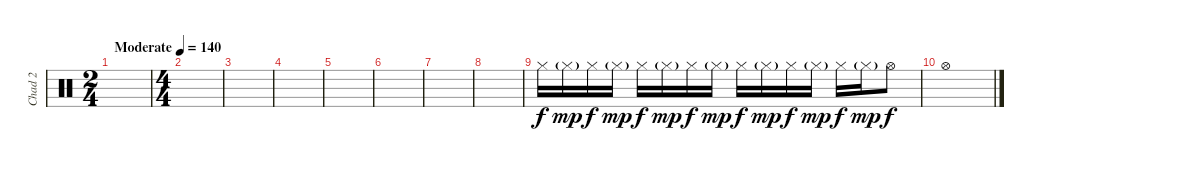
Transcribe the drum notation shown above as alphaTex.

\track ("Chad 2" "Chad 2") {instrument percussion}
\staff {score}
\articulation defaults
\ts (2 4)
\tempo (140 "Moderate")
\clef neutral
\ks c
|
\ts (4 4)
|
|
|
|
|
|
|
"Hi-Hat (closed)".16 "Hi-Hat (closed)"{g}.16{dy mp} "Hi-Hat (closed)".16{dy f} "Hi-Hat (closed)"{g}.16{dy mp} "Hi-Hat (closed)".16{dy f} "Hi-Hat (closed)"{g}.16{dy mp} "Hi-Hat (closed)".16{dy f} "Hi-Hat (closed)"{g}.16{dy mp} "Hi-Hat (closed)".16{dy f} "Hi-Hat (closed)"{g}.16{dy mp} "Hi-Hat (closed)".16{dy f} "Hi-Hat (closed)"{g}.16{dy mp} "Hi-Hat (closed)".16{dy f} "Hi-Hat (closed)"{g}.16{dy mp} "Hi-Hat (open)".8{dy f} |
"Hi-Hat (open)".1
